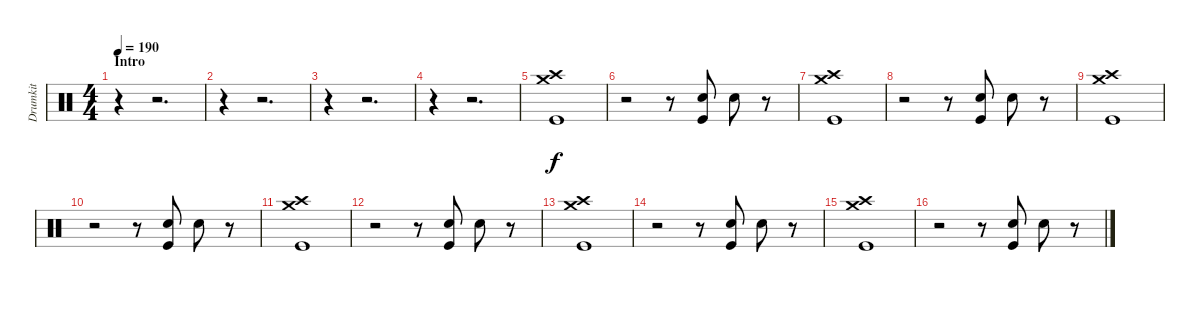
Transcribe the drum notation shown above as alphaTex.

\track ("Drumkit" "Drumkit") {instrument percussion}
\staff {score}
\articulation defaults
\ts (4 4)
\section ("" "Intro")
\tempo 190
\clef neutral
\ks c
r.4{dy f} r.2{d} |
r.4 r.2{d} |
r.4 r.2{d} |
r.4 r.2{d} |
("Crash medium (hit)" "Crash high (hit)" "Kick (hit)").1 |
r.2 r.8 ("Snare (hit) 2" "Kick (hit)").8 "Snare (hit) 2".8 r.8 |
("Crash medium (hit)" "Crash high (hit)" "Kick (hit)").1 |
r.2 r.8 ("Snare (hit) 2" "Kick (hit)").8 "Snare (hit) 2".8 r.8 |
("Crash medium (hit)" "Crash high (hit)" "Kick (hit)").1 |
r.2 r.8 ("Snare (hit) 2" "Kick (hit)").8 "Snare (hit) 2".8 r.8 |
("Crash medium (hit)" "Crash high (hit)" "Kick (hit)").1 |
r.2 r.8 ("Snare (hit) 2" "Kick (hit)").8 "Snare (hit) 2".8 r.8 |
("Crash medium (hit)" "Crash high (hit)" "Kick (hit)").1 |
r.2 r.8 ("Snare (hit) 2" "Kick (hit)").8 "Snare (hit) 2".8 r.8 |
("Crash medium (hit)" "Crash high (hit)" "Kick (hit)").1 |
r.2 r.8 ("Snare (hit) 2" "Kick (hit)").8 "Snare (hit) 2".8 r.8
